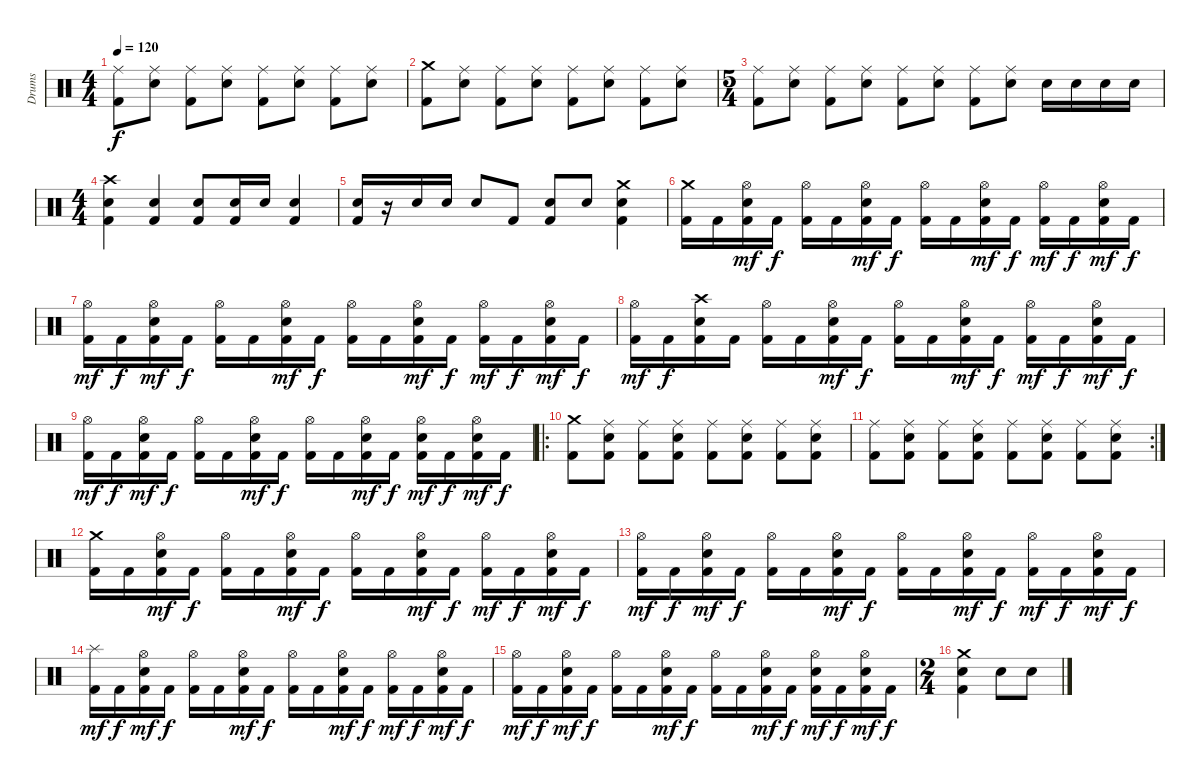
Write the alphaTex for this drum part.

\track ("Drums" "Drums") {instrument percussion}
\staff {score}
\articulation defaults
\ts (4 4)
\tempo 120
\clef neutral
\ks c
("Ride (middle)" "Kick (hit) 2").8{dy f} ("Ride (middle)" "Snare (hit) 2").8 ("Ride (middle)" "Kick (hit) 2").8 ("Ride (middle)" "Snare (hit) 2").8 ("Ride (middle)" "Kick (hit) 2").8 ("Ride (middle)" "Snare (hit) 2").8 ("Ride (middle)" "Kick (hit) 2").8 ("Ride (middle)" "Snare (hit) 2").8 |
("Crash medium (hit)" "Kick (hit) 2").8 ("Ride (middle)" "Snare (hit) 2").8 ("Ride (middle)" "Kick (hit) 2").8 ("Ride (middle)" "Snare (hit) 2").8 ("Ride (middle)" "Kick (hit) 2").8 ("Ride (middle)" "Snare (hit) 2").8 ("Ride (middle)" "Kick (hit) 2").8 ("Ride (middle)" "Snare (hit) 2").8 |
\ts (5 4)
("Ride (middle)" "Kick (hit) 2").8 ("Ride (middle)" "Snare (hit) 2").8 ("Ride (middle)" "Kick (hit) 2").8 ("Ride (middle)" "Snare (hit) 2").8 ("Ride (middle)" "Kick (hit) 2").8 ("Ride (middle)" "Snare (hit) 2").8 ("Ride (middle)" "Kick (hit) 2").8 ("Ride (middle)" "Snare (hit) 2").8 "Snare (hit) 2".16 "Snare (hit) 2".16 "Snare (hit) 2".16 "Snare (hit) 2".16 |
\ts (4 4)
("Crash high (hit)" "Snare (hit) 2" "Kick (hit) 2").4 ("Snare (hit) 2" "Kick (hit) 2").4 ("Snare (hit) 2" "Kick (hit) 2").8 ("Snare (hit) 2" "Kick (hit) 2").16 "Snare (hit) 2".16 ("Snare (hit) 2" "Kick (hit) 2").4 |
("Snare (hit) 2" "Kick (hit) 2").16 r.16 "Snare (hit) 2".16 "Snare (hit) 2".16 "Snare (hit) 2".8 "Kick (hit) 2".8 ("Snare (hit) 2" "Kick (hit) 2").8 "Snare (hit) 2".8 ("Crash medium (hit)" "Snare (hit) 2" "Kick (hit) 2").4 |
("Crash medium (hit)" "Kick (hit) 2").16 "Kick (hit) 2".16 ("Hi-Hat (open)" "Snare (hit) 2" "Kick (hit) 2").16{dy mf} "Kick (hit) 2".16{dy f} ("Hi-Hat (open)" "Kick (hit) 2").16 "Kick (hit) 2".16 ("Hi-Hat (open)" "Snare (hit) 2" "Kick (hit) 2").16{dy mf} "Kick (hit) 2".16{dy f} ("Hi-Hat (open)" "Kick (hit) 2").16 "Kick (hit) 2".16 ("Hi-Hat (open)" "Snare (hit) 2" "Kick (hit) 2").16{dy mf} "Kick (hit) 2".16{dy f} ("Hi-Hat (open)" "Kick (hit) 2").16{dy mf} "Kick (hit) 2".16{dy f} ("Hi-Hat (open)" "Snare (hit) 2" "Kick (hit) 2").16{dy mf} "Kick (hit) 2".16{dy f} |
("Hi-Hat (open)" "Kick (hit) 2").16{dy mf} "Kick (hit) 2".16{dy f} ("Hi-Hat (open)" "Snare (hit) 2" "Kick (hit) 2").16{dy mf} "Kick (hit) 2".16{dy f} ("Hi-Hat (open)" "Kick (hit) 2").16 "Kick (hit) 2".16 ("Hi-Hat (open)" "Snare (hit) 2" "Kick (hit) 2").16{dy mf} "Kick (hit) 2".16{dy f} ("Hi-Hat (open)" "Kick (hit) 2").16 "Kick (hit) 2".16 ("Hi-Hat (open)" "Snare (hit) 2" "Kick (hit) 2").16{dy mf} "Kick (hit) 2".16{dy f} ("Hi-Hat (open)" "Kick (hit) 2").16{dy mf} "Kick (hit) 2".16{dy f} ("Hi-Hat (open)" "Snare (hit) 2" "Kick (hit) 2").16{dy mf} "Kick (hit) 2".16{dy f} |
("Hi-Hat (open)" "Kick (hit) 2").16{dy mf} "Kick (hit) 2".16{dy f} ("Crash high (hit)" "Snare (hit) 2" "Kick (hit) 2").16 "Kick (hit) 2".16 ("Hi-Hat (open)" "Kick (hit) 2").16 "Kick (hit) 2".16 ("Hi-Hat (open)" "Snare (hit) 2" "Kick (hit) 2").16{dy mf} "Kick (hit) 2".16{dy f} ("Hi-Hat (open)" "Kick (hit) 2").16 "Kick (hit) 2".16 ("Hi-Hat (open)" "Snare (hit) 2" "Kick (hit) 2").16{dy mf} "Kick (hit) 2".16{dy f} ("Hi-Hat (open)" "Kick (hit) 2").16{dy mf} "Kick (hit) 2".16{dy f} ("Hi-Hat (open)" "Snare (hit) 2" "Kick (hit) 2").16{dy mf} "Kick (hit) 2".16{dy f} |
("Hi-Hat (open)" "Kick (hit) 2").16{dy mf} "Kick (hit) 2".16{dy f} ("Hi-Hat (open)" "Snare (hit) 2" "Kick (hit) 2").16{dy mf} "Kick (hit) 2".16{dy f} ("Hi-Hat (open)" "Kick (hit) 2").16 "Kick (hit) 2".16 ("Hi-Hat (open)" "Snare (hit) 2" "Kick (hit) 2").16{dy mf} "Kick (hit) 2".16{dy f} ("Hi-Hat (open)" "Kick (hit) 2").16 "Kick (hit) 2".16 ("Hi-Hat (open)" "Snare (hit) 2" "Kick (hit) 2").16{dy mf} "Kick (hit) 2".16{dy f} ("Hi-Hat (open)" "Snare (hit) 2" "Kick (hit) 2").16{dy mf} "Kick (hit) 2".16{dy f} ("Hi-Hat (open)" "Snare (hit) 2" "Kick (hit) 2").16{dy mf} "Kick (hit) 2".16{dy f} |
\ro
("Crash medium (hit)" "Kick (hit) 2").8 ("Ride (middle)" "Snare (hit) 2" "Kick (hit) 2").8 ("Ride (middle)" "Kick (hit) 2").8 ("Ride (middle)" "Snare (hit) 2" "Kick (hit) 2").8 ("Ride (middle)" "Kick (hit) 2").8 ("Ride (middle)" "Snare (hit) 2" "Kick (hit) 2").8 ("Ride (middle)" "Kick (hit) 2").8 ("Ride (middle)" "Snare (hit) 2" "Kick (hit) 2").8 |
\rc 2
("Ride (middle)" "Kick (hit) 2").8 ("Ride (middle)" "Snare (hit) 2" "Kick (hit) 2").8 ("Ride (middle)" "Kick (hit) 2").8 ("Ride (middle)" "Snare (hit) 2" "Kick (hit) 2").8 ("Ride (middle)" "Kick (hit) 2").8 ("Ride (middle)" "Snare (hit) 2" "Kick (hit) 2").8 ("Ride (middle)" "Kick (hit) 2").8 ("Ride (middle)" "Snare (hit) 2" "Kick (hit) 2").8 |
("Crash medium (hit)" "Kick (hit) 2").16 "Kick (hit) 2".16 ("Hi-Hat (open)" "Snare (hit) 2" "Kick (hit) 2").16{dy mf} "Kick (hit) 2".16{dy f} ("Hi-Hat (open)" "Kick (hit) 2").16 "Kick (hit) 2".16 ("Hi-Hat (open)" "Snare (hit) 2" "Kick (hit) 2").16{dy mf} "Kick (hit) 2".16{dy f} ("Hi-Hat (open)" "Kick (hit) 2").16 "Kick (hit) 2".16 ("Hi-Hat (open)" "Snare (hit) 2" "Kick (hit) 2").16{dy mf} "Kick (hit) 2".16{dy f} ("Hi-Hat (open)" "Kick (hit) 2").16{dy mf} "Kick (hit) 2".16{dy f} ("Hi-Hat (open)" "Snare (hit) 2" "Kick (hit) 2").16{dy mf} "Kick (hit) 2".16{dy f} |
("Hi-Hat (open)" "Kick (hit) 2").16{dy mf} "Kick (hit) 2".16{dy f} ("Hi-Hat (open)" "Snare (hit) 2" "Kick (hit) 2").16{dy mf} "Kick (hit) 2".16{dy f} ("Hi-Hat (open)" "Kick (hit) 2").16 "Kick (hit) 2".16 ("Hi-Hat (open)" "Snare (hit) 2" "Kick (hit) 2").16{dy mf} "Kick (hit) 2".16{dy f} ("Hi-Hat (open)" "Kick (hit) 2").16 "Kick (hit) 2".16 ("Hi-Hat (open)" "Snare (hit) 2" "Kick (hit) 2").16{dy mf} "Kick (hit) 2".16{dy f} ("Hi-Hat (open)" "Kick (hit) 2").16{dy mf} "Kick (hit) 2".16{dy f} ("Hi-Hat (open)" "Snare (hit) 2" "Kick (hit) 2").16{dy mf} "Kick (hit) 2".16{dy f} |
("Splash (hit)" "Kick (hit) 2").16{dy mf} "Kick (hit) 2".16{dy f} ("Hi-Hat (open)" "Snare (hit) 2" "Kick (hit) 2").16{dy mf} "Kick (hit) 2".16{dy f} ("Hi-Hat (open)" "Kick (hit) 2").16 "Kick (hit) 2".16 ("Hi-Hat (open)" "Snare (hit) 2" "Kick (hit) 2").16{dy mf} "Kick (hit) 2".16{dy f} ("Hi-Hat (open)" "Kick (hit) 2").16 "Kick (hit) 2".16 ("Hi-Hat (open)" "Snare (hit) 2" "Kick (hit) 2").16{dy mf} "Kick (hit) 2".16{dy f} ("Hi-Hat (open)" "Kick (hit) 2").16{dy mf} "Kick (hit) 2".16{dy f} ("Hi-Hat (open)" "Snare (hit) 2" "Kick (hit) 2").16{dy mf} "Kick (hit) 2".16{dy f} |
("Hi-Hat (open)" "Kick (hit) 2").16{dy mf} "Kick (hit) 2".16{dy f} ("Hi-Hat (open)" "Snare (hit) 2" "Kick (hit) 2").16{dy mf} "Kick (hit) 2".16{dy f} ("Hi-Hat (open)" "Kick (hit) 2").16 "Kick (hit) 2".16 ("Hi-Hat (open)" "Snare (hit) 2" "Kick (hit) 2").16{dy mf} "Kick (hit) 2".16{dy f} ("Hi-Hat (open)" "Kick (hit) 2").16 "Kick (hit) 2".16 ("Hi-Hat (open)" "Snare (hit) 2" "Kick (hit) 2").16{dy mf} "Kick (hit) 2".16{dy f} ("Hi-Hat (open)" "Snare (hit) 2" "Kick (hit) 2").16{dy mf} "Kick (hit) 2".16{dy f} ("Hi-Hat (open)" "Snare (hit) 2" "Kick (hit) 2").16{dy mf} "Kick (hit) 2".16{dy f} |
\ts (2 4)
("Crash medium (hit)" "Snare (hit) 2" "Kick (hit) 2").4 "Snare (hit) 2".8 "Snare (hit) 2".8
